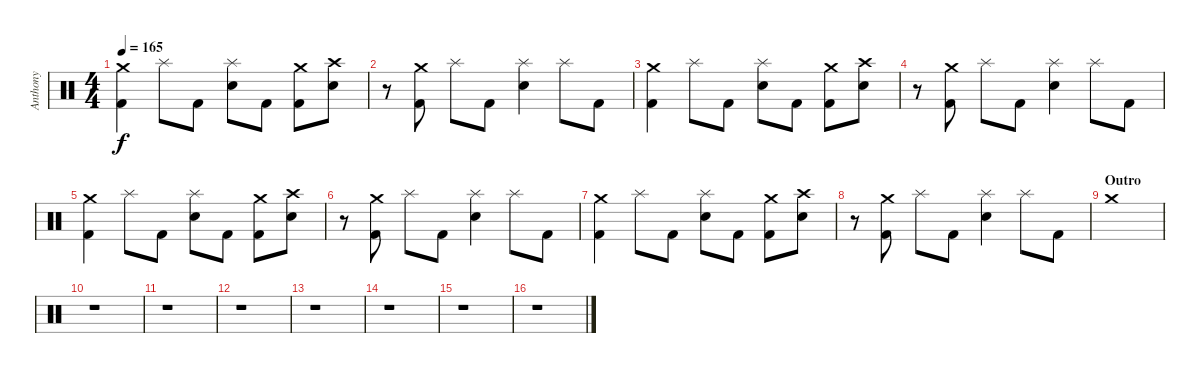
\track ("Anthony" "Anthony") {instrument percussion}
\staff {score}
\articulation defaults
\ts (4 4)
\tempo 165
\clef neutral
\ks c
("Crash medium (hit)" "Kick (hit) 2").4{dy f} "Splash (hit)".8 "Kick (hit) 2".8 ("Splash (hit)" "Electric Snare (hit)").8 "Kick (hit) 2".8 ("Crash medium (hit)" "Kick (hit) 2").8 ("Crash high (hit)" "Electric Snare (hit)").8 |
r.8 ("Crash medium (hit)" "Kick (hit) 2").8 "Splash (hit)".8 "Kick (hit) 2".8 ("Splash (hit)" "Electric Snare (hit)").4 "Splash (hit)".8 "Kick (hit) 2".8 |
("Crash medium (hit)" "Kick (hit) 2").4 "Splash (hit)".8 "Kick (hit) 2".8 ("Splash (hit)" "Electric Snare (hit)").8 "Kick (hit) 2".8 ("Crash medium (hit)" "Kick (hit) 2").8 ("Crash high (hit)" "Electric Snare (hit)").8 |
r.8 ("Crash medium (hit)" "Kick (hit) 2").8 "Splash (hit)".8 "Kick (hit) 2".8 ("Splash (hit)" "Electric Snare (hit)").4 "Splash (hit)".8 "Kick (hit) 2".8 |
("Crash medium (hit)" "Kick (hit) 2").4 "Splash (hit)".8 "Kick (hit) 2".8 ("Splash (hit)" "Electric Snare (hit)").8 "Kick (hit) 2".8 ("Crash medium (hit)" "Kick (hit) 2").8 ("Crash high (hit)" "Electric Snare (hit)").8 |
r.8 ("Crash medium (hit)" "Kick (hit) 2").8 "Splash (hit)".8 "Kick (hit) 2".8 ("Splash (hit)" "Electric Snare (hit)").4 "Splash (hit)".8 "Kick (hit) 2".8 |
("Crash medium (hit)" "Kick (hit) 2").4 "Splash (hit)".8 "Kick (hit) 2".8 ("Splash (hit)" "Electric Snare (hit)").8 "Kick (hit) 2".8 ("Crash medium (hit)" "Kick (hit) 2").8 ("Crash high (hit)" "Electric Snare (hit)").8 |
r.8 ("Crash medium (hit)" "Kick (hit) 2").8 "Splash (hit)".8 "Kick (hit) 2".8 ("Splash (hit)" "Electric Snare (hit)").4 "Splash (hit)".8 "Kick (hit) 2".8 |
\section ("" "Outro")
"Crash medium (hit)".1 |
r.1 |
r.1 |
r.1 |
r.1 |
r.1 |
r.1 |
r.1
